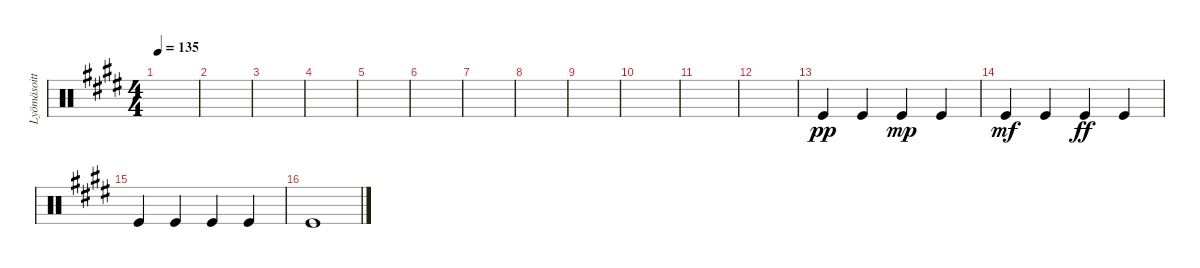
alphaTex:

\track ("Lyömäsoittimet" "Lyömäsoitt") {instrument percussion}
\staff {score}
\articulation defaults
\ts (4 4)
\tempo 135
\clef neutral
\ks e
|
|
|
|
|
|
|
|
|
|
|
|
"Kick (hit)".4{dy pp} "Kick (hit)".4 "Kick (hit)".4{dy mp} "Kick (hit)".4 |
"Kick (hit)".4{dy mf} "Kick (hit)".4 "Kick (hit)".4{dy ff} "Kick (hit)".4 |
"Kick (hit)".4 "Kick (hit)".4 "Kick (hit)".4 "Kick (hit)".4 |
"Kick (hit)".1
